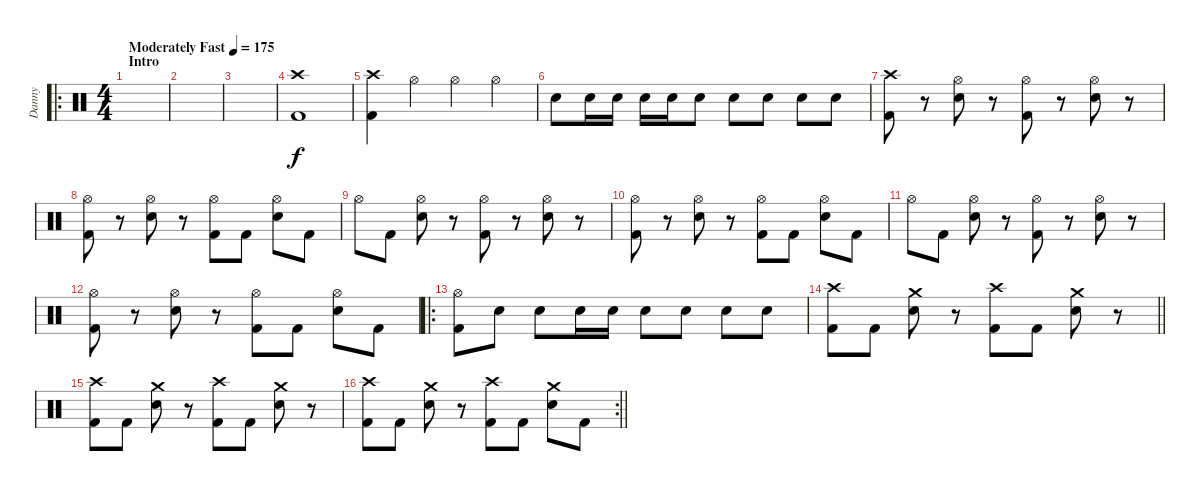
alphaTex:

\track ("Danny" "Danny") {instrument percussion}
\staff {score}
\articulation defaults
\ro
\ts (4 4)
\section ("" "Intro")
\tempo (175 "Moderately Fast")
\clef neutral
\ks c
|
|
|
("Crash high (hit)" "Kick (hit) 2").1 |
("Crash high (hit)" "Kick (hit) 2").4 "Hi-Hat (open)".4 "Hi-Hat (open)".4 "Hi-Hat (open)".4 |
"Electric Snare (hit)".8 "Electric Snare (hit)".16 "Electric Snare (hit)".16 "Electric Snare (hit)".16 "Electric Snare (hit)".16 "Electric Snare (hit)".8 "Electric Snare (hit)".8 "Electric Snare (hit)".8 "Electric Snare (hit)".8 "Electric Snare (hit)".8 |
("Crash high (hit)" "Kick (hit) 2").8 r.8 ("Hi-Hat (open)" "Electric Snare (hit)").8 r.8 ("Hi-Hat (open)" "Kick (hit) 2").8 r.8 ("Hi-Hat (open)" "Electric Snare (hit)").8 r.8 |
("Hi-Hat (open)" "Kick (hit) 2").8 r.8 ("Hi-Hat (open)" "Electric Snare (hit)").8 r.8 ("Hi-Hat (open)" "Kick (hit) 2").8 "Kick (hit) 2".8 ("Hi-Hat (open)" "Electric Snare (hit)").8 "Kick (hit) 2".8 |
"Hi-Hat (open)".8 "Kick (hit) 2".8 ("Hi-Hat (open)" "Electric Snare (hit)").8 r.8 ("Hi-Hat (open)" "Kick (hit) 2").8 r.8 ("Hi-Hat (open)" "Electric Snare (hit)").8 r.8 |
("Hi-Hat (open)" "Kick (hit) 2").8 r.8 ("Hi-Hat (open)" "Electric Snare (hit)").8 r.8 ("Hi-Hat (open)" "Kick (hit) 2").8 "Kick (hit) 2".8 ("Hi-Hat (open)" "Electric Snare (hit)").8 "Kick (hit) 2".8 |
"Hi-Hat (open)".8 "Kick (hit) 2".8 ("Hi-Hat (open)" "Electric Snare (hit)").8 r.8 ("Hi-Hat (open)" "Kick (hit) 2").8 r.8 ("Hi-Hat (open)" "Electric Snare (hit)").8 r.8 |
("Hi-Hat (open)" "Kick (hit) 2").8 r.8 ("Hi-Hat (open)" "Electric Snare (hit)").8 r.8 ("Hi-Hat (open)" "Kick (hit) 2").8 "Kick (hit) 2".8 ("Hi-Hat (open)" "Electric Snare (hit)").8 "Kick (hit) 2".8 |
\ro
("Hi-Hat (open)" "Kick (hit) 2").8 "Electric Snare (hit)".8 "Electric Snare (hit)".8 "Electric Snare (hit)".16 "Electric Snare (hit)".16 "Electric Snare (hit)".8 "Electric Snare (hit)".8 "Electric Snare (hit)".8 "Electric Snare (hit)".8 |
\barLineRight lightlight
("Crash high (hit)" "Kick (hit) 2").8 "Kick (hit) 2".8 ("Crash medium (hit)" "Electric Snare (hit)").8 r.8 ("Crash high (hit)" "Kick (hit) 2").8 "Kick (hit) 2".8 ("Crash medium (hit)" "Electric Snare (hit)").8 r.8 |
("Crash high (hit)" "Kick (hit) 2").8 "Kick (hit) 2".8 ("Crash medium (hit)" "Electric Snare (hit)").8 r.8 ("Crash high (hit)" "Kick (hit) 2").8 "Kick (hit) 2".8 ("Crash medium (hit)" "Electric Snare (hit)").8 r.8 |
\rc 2
\barLineRight lightlight
("Crash high (hit)" "Kick (hit) 2").8 "Kick (hit) 2".8 ("Crash medium (hit)" "Electric Snare (hit)").8 r.8 ("Crash high (hit)" "Kick (hit) 2").8 "Kick (hit) 2".8 ("Crash medium (hit)" "Electric Snare (hit)").8 "Kick (hit) 2".8
